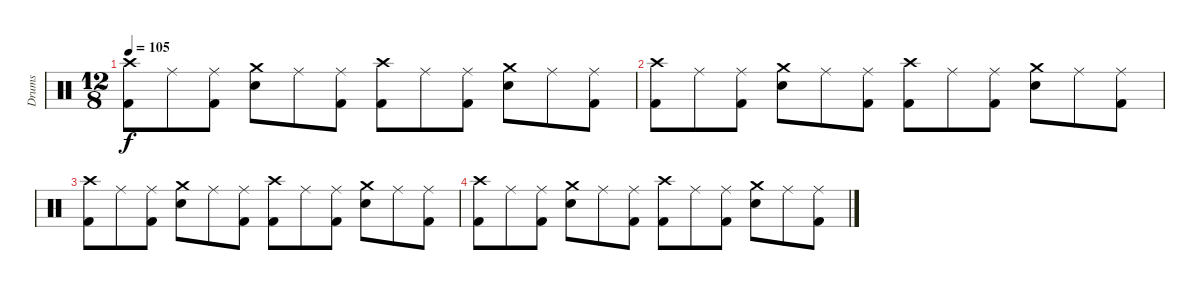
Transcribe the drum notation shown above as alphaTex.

\track ("Drums" "Drums") {instrument percussion}
\staff {score}
\articulation defaults
\ts (12 8)
\tempo 105
\clef neutral
\ks c
("Crash high (hit)" "Kick (hit) 2").8{dy f} "Ride (middle)".8 ("Ride (middle)" "Kick (hit) 2").8 ("Crash medium (hit)" "Snare (hit) 2").8 "Ride (middle)".8 ("Ride (middle)" "Kick (hit) 2").8 ("Crash high (hit)" "Kick (hit) 2").8 "Ride (middle)".8 ("Ride (middle)" "Kick (hit) 2").8 ("Crash medium (hit)" "Snare (hit) 2").8 "Ride (middle)".8 ("Ride (middle)" "Kick (hit) 2").8 |
("Crash high (hit)" "Kick (hit) 2").8 "Ride (middle)".8 ("Ride (middle)" "Kick (hit) 2").8 ("Crash medium (hit)" "Snare (hit) 2").8 "Ride (middle)".8 ("Ride (middle)" "Kick (hit) 2").8 ("Crash high (hit)" "Kick (hit) 2").8 "Ride (middle)".8 ("Ride (middle)" "Kick (hit) 2").8 ("Crash medium (hit)" "Snare (hit) 2").8 "Ride (middle)".8 ("Ride (middle)" "Kick (hit) 2").8 |
("Crash high (hit)" "Kick (hit) 2").8 "Ride (middle)".8 ("Ride (middle)" "Kick (hit) 2").8 ("Crash medium (hit)" "Snare (hit) 2").8 "Ride (middle)".8 ("Ride (middle)" "Kick (hit) 2").8 ("Crash high (hit)" "Kick (hit) 2").8 "Ride (middle)".8 ("Ride (middle)" "Kick (hit) 2").8 ("Crash medium (hit)" "Snare (hit) 2").8 "Ride (middle)".8 ("Ride (middle)" "Kick (hit) 2").8 |
("Crash high (hit)" "Kick (hit) 2").8 "Ride (middle)".8 ("Ride (middle)" "Kick (hit) 2").8 ("Crash medium (hit)" "Snare (hit) 2").8 "Ride (middle)".8 ("Ride (middle)" "Kick (hit) 2").8 ("Crash high (hit)" "Kick (hit) 2").8 "Ride (middle)".8 ("Ride (middle)" "Kick (hit) 2").8 ("Crash medium (hit)" "Snare (hit) 2").8 "Ride (middle)".8 ("Ride (middle)" "Kick (hit) 2").8
